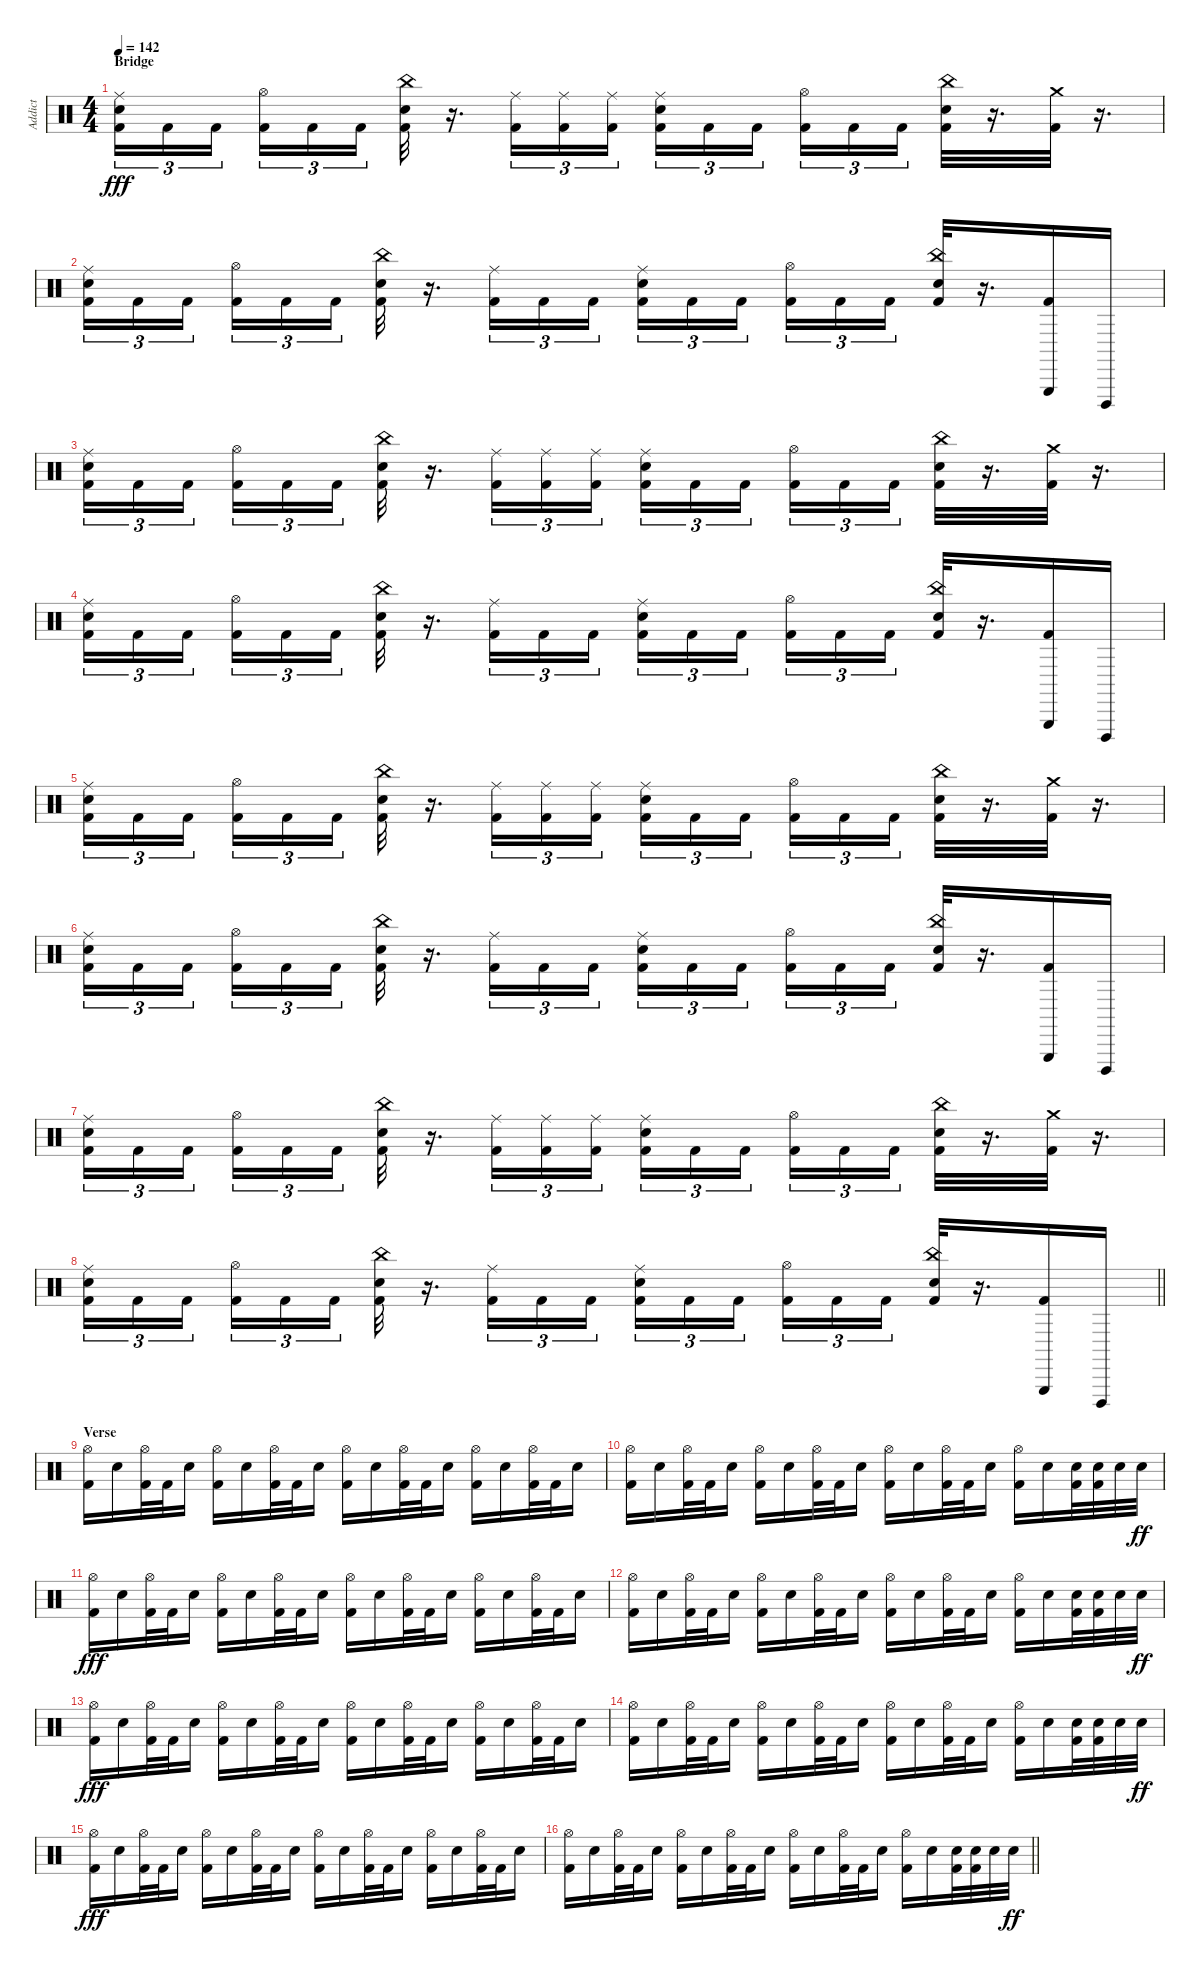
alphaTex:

\track ("Addict" "Addict") {instrument percussion}
\staff {score}
\articulation defaults
\ts (4 4)
\section ("" "Bridge")
\tempo 142
\clef neutral
\ks c
("Kick (hit) 2" "Snare (hit) 2" "Ride (middle)").16{tu (3 2) dy fff} "Kick (hit) 2".16{tu (3 2)} "Kick (hit) 2".16{tu (3 2) beam splitsecondary} ("Kick (hit) 2" "Hi-Hat (open)").16{tu (3 2)} "Kick (hit) 2".16{tu (3 2)} "Kick (hit) 2".16{tu (3 2)} ("Kick (hit) 2" "Snare (hit) 2" "China (hit)").32 r.16{d} ("Kick (hit) 2" "Ride (middle)").16{tu (3 2)} ("Kick (hit) 2" "Ride (middle)").16{tu (3 2)} ("Kick (hit) 2" "Ride (middle)").16{tu (3 2)} ("Kick (hit) 2" "Snare (hit) 2" "Ride (middle)").16{tu (3 2)} "Kick (hit) 2".16{tu (3 2)} "Kick (hit) 2".16{tu (3 2) beam splitsecondary} ("Kick (hit) 2" "Hi-Hat (open)").16{tu (3 2)} "Kick (hit) 2".16{tu (3 2)} "Kick (hit) 2".16{tu (3 2)} ("Kick (hit) 2" "Snare (hit) 2" "China (hit)").32 r.16{d} ("Kick (hit) 2" "Crash medium (hit)").32 r.16{d} |
("Kick (hit) 2" "Snare (hit) 2" "Ride (middle)").16{tu (3 2)} "Kick (hit) 2".16{tu (3 2)} "Kick (hit) 2".16{tu (3 2) beam splitsecondary} ("Kick (hit) 2" "Hi-Hat (open)").16{tu (3 2)} "Kick (hit) 2".16{tu (3 2)} "Kick (hit) 2".16{tu (3 2)} ("Kick (hit) 2" "Snare (hit) 2" "China (hit)").32 r.16{d} ("Kick (hit) 2" "Ride (middle)").16{tu (3 2)} "Kick (hit) 2".16{tu (3 2)} "Kick (hit) 2".16{tu (3 2)} ("Kick (hit) 2" "Snare (hit) 2" "Ride (middle)").16{tu (3 2)} "Kick (hit) 2".16{tu (3 2)} "Kick (hit) 2".16{tu (3 2) beam splitsecondary} ("Kick (hit) 2" "Hi-Hat (open)").16{tu (3 2)} "Kick (hit) 2".16{tu (3 2)} "Kick (hit) 2".16{tu (3 2)} ("Kick (hit) 2" "Snare (hit) 2" "China (hit)").32 r.16{d} ("Kick (hit) 2" "Triangle (hit)").16 "Cuica (open)".16 |
("Kick (hit) 2" "Snare (hit) 2" "Ride (middle)").16{tu (3 2)} "Kick (hit) 2".16{tu (3 2)} "Kick (hit) 2".16{tu (3 2) beam splitsecondary} ("Kick (hit) 2" "Hi-Hat (open)").16{tu (3 2)} "Kick (hit) 2".16{tu (3 2)} "Kick (hit) 2".16{tu (3 2)} ("Kick (hit) 2" "Snare (hit) 2" "China (hit)").32 r.16{d} ("Kick (hit) 2" "Ride (middle)").16{tu (3 2)} ("Kick (hit) 2" "Ride (middle)").16{tu (3 2)} ("Kick (hit) 2" "Ride (middle)").16{tu (3 2)} ("Kick (hit) 2" "Snare (hit) 2" "Ride (middle)").16{tu (3 2)} "Kick (hit) 2".16{tu (3 2)} "Kick (hit) 2".16{tu (3 2) beam splitsecondary} ("Kick (hit) 2" "Hi-Hat (open)").16{tu (3 2)} "Kick (hit) 2".16{tu (3 2)} "Kick (hit) 2".16{tu (3 2)} ("Kick (hit) 2" "Snare (hit) 2" "China (hit)").32 r.16{d} ("Kick (hit) 2" "Crash medium (hit)").32 r.16{d} |
("Kick (hit) 2" "Snare (hit) 2" "Ride (middle)").16{tu (3 2)} "Kick (hit) 2".16{tu (3 2)} "Kick (hit) 2".16{tu (3 2) beam splitsecondary} ("Kick (hit) 2" "Hi-Hat (open)").16{tu (3 2)} "Kick (hit) 2".16{tu (3 2)} "Kick (hit) 2".16{tu (3 2)} ("Kick (hit) 2" "Snare (hit) 2" "China (hit)").32 r.16{d} ("Kick (hit) 2" "Ride (middle)").16{tu (3 2)} "Kick (hit) 2".16{tu (3 2)} "Kick (hit) 2".16{tu (3 2)} ("Kick (hit) 2" "Snare (hit) 2" "Ride (middle)").16{tu (3 2)} "Kick (hit) 2".16{tu (3 2)} "Kick (hit) 2".16{tu (3 2) beam splitsecondary} ("Kick (hit) 2" "Hi-Hat (open)").16{tu (3 2)} "Kick (hit) 2".16{tu (3 2)} "Kick (hit) 2".16{tu (3 2)} ("Kick (hit) 2" "Snare (hit) 2" "China (hit)").32 r.16{d} ("Kick (hit) 2" "Triangle (hit)").16 "Cuica (open)".16 |
("Kick (hit) 2" "Snare (hit) 2" "Ride (middle)").16{tu (3 2)} "Kick (hit) 2".16{tu (3 2)} "Kick (hit) 2".16{tu (3 2) beam splitsecondary} ("Kick (hit) 2" "Hi-Hat (open)").16{tu (3 2)} "Kick (hit) 2".16{tu (3 2)} "Kick (hit) 2".16{tu (3 2)} ("Kick (hit) 2" "Snare (hit) 2" "China (hit)").32 r.16{d} ("Kick (hit) 2" "Ride (middle)").16{tu (3 2)} ("Kick (hit) 2" "Ride (middle)").16{tu (3 2)} ("Kick (hit) 2" "Ride (middle)").16{tu (3 2)} ("Kick (hit) 2" "Snare (hit) 2" "Ride (middle)").16{tu (3 2)} "Kick (hit) 2".16{tu (3 2)} "Kick (hit) 2".16{tu (3 2) beam splitsecondary} ("Kick (hit) 2" "Hi-Hat (open)").16{tu (3 2)} "Kick (hit) 2".16{tu (3 2)} "Kick (hit) 2".16{tu (3 2)} ("Kick (hit) 2" "Snare (hit) 2" "China (hit)").32 r.16{d} ("Kick (hit) 2" "Crash medium (hit)").32 r.16{d} |
("Kick (hit) 2" "Snare (hit) 2" "Ride (middle)").16{tu (3 2)} "Kick (hit) 2".16{tu (3 2)} "Kick (hit) 2".16{tu (3 2) beam splitsecondary} ("Kick (hit) 2" "Hi-Hat (open)").16{tu (3 2)} "Kick (hit) 2".16{tu (3 2)} "Kick (hit) 2".16{tu (3 2)} ("Kick (hit) 2" "Snare (hit) 2" "China (hit)").32 r.16{d} ("Kick (hit) 2" "Ride (middle)").16{tu (3 2)} "Kick (hit) 2".16{tu (3 2)} "Kick (hit) 2".16{tu (3 2)} ("Kick (hit) 2" "Snare (hit) 2" "Ride (middle)").16{tu (3 2)} "Kick (hit) 2".16{tu (3 2)} "Kick (hit) 2".16{tu (3 2) beam splitsecondary} ("Kick (hit) 2" "Hi-Hat (open)").16{tu (3 2)} "Kick (hit) 2".16{tu (3 2)} "Kick (hit) 2".16{tu (3 2)} ("Kick (hit) 2" "Snare (hit) 2" "China (hit)").32 r.16{d} ("Kick (hit) 2" "Triangle (hit)").16 "Cuica (open)".16 |
("Kick (hit) 2" "Snare (hit) 2" "Ride (middle)").16{tu (3 2)} "Kick (hit) 2".16{tu (3 2)} "Kick (hit) 2".16{tu (3 2) beam splitsecondary} ("Kick (hit) 2" "Hi-Hat (open)").16{tu (3 2)} "Kick (hit) 2".16{tu (3 2)} "Kick (hit) 2".16{tu (3 2)} ("Kick (hit) 2" "Snare (hit) 2" "China (hit)").32 r.16{d} ("Kick (hit) 2" "Ride (middle)").16{tu (3 2)} ("Kick (hit) 2" "Ride (middle)").16{tu (3 2)} ("Kick (hit) 2" "Ride (middle)").16{tu (3 2)} ("Kick (hit) 2" "Snare (hit) 2" "Ride (middle)").16{tu (3 2)} "Kick (hit) 2".16{tu (3 2)} "Kick (hit) 2".16{tu (3 2) beam splitsecondary} ("Kick (hit) 2" "Hi-Hat (open)").16{tu (3 2)} "Kick (hit) 2".16{tu (3 2)} "Kick (hit) 2".16{tu (3 2)} ("Kick (hit) 2" "Snare (hit) 2" "China (hit)").32 r.16{d} ("Kick (hit) 2" "Crash medium (hit)").32 r.16{d} |
\barLineRight lightlight
("Kick (hit) 2" "Snare (hit) 2" "Ride (middle)").16{tu (3 2)} "Kick (hit) 2".16{tu (3 2)} "Kick (hit) 2".16{tu (3 2) beam splitsecondary} ("Kick (hit) 2" "Hi-Hat (open)").16{tu (3 2)} "Kick (hit) 2".16{tu (3 2)} "Kick (hit) 2".16{tu (3 2)} ("Kick (hit) 2" "Snare (hit) 2" "China (hit)").32 r.16{d} ("Kick (hit) 2" "Ride (middle)").16{tu (3 2)} "Kick (hit) 2".16{tu (3 2)} "Kick (hit) 2".16{tu (3 2)} ("Kick (hit) 2" "Snare (hit) 2" "Ride (middle)").16{tu (3 2)} "Kick (hit) 2".16{tu (3 2)} "Kick (hit) 2".16{tu (3 2) beam splitsecondary} ("Kick (hit) 2" "Hi-Hat (open)").16{tu (3 2)} "Kick (hit) 2".16{tu (3 2)} "Kick (hit) 2".16{tu (3 2)} ("Kick (hit) 2" "Snare (hit) 2" "China (hit)").32 r.16{d} ("Kick (hit) 2" "Triangle (hit)").16 "Cuica (open)".16 |
\section ("" "Verse")
("Kick (hit) 2" "Hi-Hat (open)").16 "Snare (hit) 2".16 ("Kick (hit) 2" "Hi-Hat (open)").32 "Kick (hit) 2".32 "Snare (hit) 2".16 ("Kick (hit) 2" "Hi-Hat (open)").16 "Snare (hit) 2".16 ("Kick (hit) 2" "Hi-Hat (open)").32 "Kick (hit) 2".32 "Snare (hit) 2".16 ("Kick (hit) 2" "Hi-Hat (open)").16 "Snare (hit) 2".16 ("Kick (hit) 2" "Hi-Hat (open)").32 "Kick (hit) 2".32 "Snare (hit) 2".16 ("Kick (hit) 2" "Hi-Hat (open)").16 "Snare (hit) 2".16 ("Kick (hit) 2" "Hi-Hat (open)").32 "Kick (hit) 2".32 "Snare (hit) 2".16 |
("Kick (hit) 2" "Hi-Hat (open)").16 "Snare (hit) 2".16 ("Kick (hit) 2" "Hi-Hat (open)").32 "Kick (hit) 2".32 "Snare (hit) 2".16 ("Kick (hit) 2" "Hi-Hat (open)").16 "Snare (hit) 2".16 ("Kick (hit) 2" "Hi-Hat (open)").32 "Kick (hit) 2".32 "Snare (hit) 2".16 ("Kick (hit) 2" "Hi-Hat (open)").16 "Snare (hit) 2".16 ("Kick (hit) 2" "Hi-Hat (open)").32 "Kick (hit) 2".32 "Snare (hit) 2".16 ("Kick (hit) 2" "Hi-Hat (open)").16 "Snare (hit) 2".16 ("Kick (hit) 2" "Snare (hit) 2").32 ("Kick (hit) 2" "Snare (hit) 2").32 "Snare (hit) 2".32 "Snare (hit) 2".32{dy ff} |
("Kick (hit) 2" "Hi-Hat (open)").16{dy fff} "Snare (hit) 2".16 ("Kick (hit) 2" "Hi-Hat (open)").32 "Kick (hit) 2".32 "Snare (hit) 2".16 ("Kick (hit) 2" "Hi-Hat (open)").16 "Snare (hit) 2".16 ("Kick (hit) 2" "Hi-Hat (open)").32 "Kick (hit) 2".32 "Snare (hit) 2".16 ("Kick (hit) 2" "Hi-Hat (open)").16 "Snare (hit) 2".16 ("Kick (hit) 2" "Hi-Hat (open)").32 "Kick (hit) 2".32 "Snare (hit) 2".16 ("Kick (hit) 2" "Hi-Hat (open)").16 "Snare (hit) 2".16 ("Kick (hit) 2" "Hi-Hat (open)").32 "Kick (hit) 2".32 "Snare (hit) 2".16 |
("Kick (hit) 2" "Hi-Hat (open)").16 "Snare (hit) 2".16 ("Kick (hit) 2" "Hi-Hat (open)").32 "Kick (hit) 2".32 "Snare (hit) 2".16 ("Kick (hit) 2" "Hi-Hat (open)").16 "Snare (hit) 2".16 ("Kick (hit) 2" "Hi-Hat (open)").32 "Kick (hit) 2".32 "Snare (hit) 2".16 ("Kick (hit) 2" "Hi-Hat (open)").16 "Snare (hit) 2".16 ("Kick (hit) 2" "Hi-Hat (open)").32 "Kick (hit) 2".32 "Snare (hit) 2".16 ("Kick (hit) 2" "Hi-Hat (open)").16 "Snare (hit) 2".16 ("Kick (hit) 2" "Snare (hit) 2").32 ("Kick (hit) 2" "Snare (hit) 2").32 "Snare (hit) 2".32 "Snare (hit) 2".32{dy ff} |
("Kick (hit) 2" "Hi-Hat (open)").16{dy fff} "Snare (hit) 2".16 ("Kick (hit) 2" "Hi-Hat (open)").32 "Kick (hit) 2".32 "Snare (hit) 2".16 ("Kick (hit) 2" "Hi-Hat (open)").16 "Snare (hit) 2".16 ("Kick (hit) 2" "Hi-Hat (open)").32 "Kick (hit) 2".32 "Snare (hit) 2".16 ("Kick (hit) 2" "Hi-Hat (open)").16 "Snare (hit) 2".16 ("Kick (hit) 2" "Hi-Hat (open)").32 "Kick (hit) 2".32 "Snare (hit) 2".16 ("Kick (hit) 2" "Hi-Hat (open)").16 "Snare (hit) 2".16 ("Kick (hit) 2" "Hi-Hat (open)").32 "Kick (hit) 2".32 "Snare (hit) 2".16 |
("Kick (hit) 2" "Hi-Hat (open)").16 "Snare (hit) 2".16 ("Kick (hit) 2" "Hi-Hat (open)").32 "Kick (hit) 2".32 "Snare (hit) 2".16 ("Kick (hit) 2" "Hi-Hat (open)").16 "Snare (hit) 2".16 ("Kick (hit) 2" "Hi-Hat (open)").32 "Kick (hit) 2".32 "Snare (hit) 2".16 ("Kick (hit) 2" "Hi-Hat (open)").16 "Snare (hit) 2".16 ("Kick (hit) 2" "Hi-Hat (open)").32 "Kick (hit) 2".32 "Snare (hit) 2".16 ("Kick (hit) 2" "Hi-Hat (open)").16 "Snare (hit) 2".16 ("Kick (hit) 2" "Snare (hit) 2").32 ("Kick (hit) 2" "Snare (hit) 2").32 "Snare (hit) 2".32 "Snare (hit) 2".32{dy ff} |
("Kick (hit) 2" "Hi-Hat (open)").16{dy fff} "Snare (hit) 2".16 ("Kick (hit) 2" "Hi-Hat (open)").32 "Kick (hit) 2".32 "Snare (hit) 2".16 ("Kick (hit) 2" "Hi-Hat (open)").16 "Snare (hit) 2".16 ("Kick (hit) 2" "Hi-Hat (open)").32 "Kick (hit) 2".32 "Snare (hit) 2".16 ("Kick (hit) 2" "Hi-Hat (open)").16 "Snare (hit) 2".16 ("Kick (hit) 2" "Hi-Hat (open)").32 "Kick (hit) 2".32 "Snare (hit) 2".16 ("Kick (hit) 2" "Hi-Hat (open)").16 "Snare (hit) 2".16 ("Kick (hit) 2" "Hi-Hat (open)").32 "Kick (hit) 2".32 "Snare (hit) 2".16 |
\barLineRight lightlight
("Kick (hit) 2" "Hi-Hat (open)").16 "Snare (hit) 2".16 ("Kick (hit) 2" "Hi-Hat (open)").32 "Kick (hit) 2".32 "Snare (hit) 2".16 ("Kick (hit) 2" "Hi-Hat (open)").16 "Snare (hit) 2".16 ("Kick (hit) 2" "Hi-Hat (open)").32 "Kick (hit) 2".32 "Snare (hit) 2".16 ("Kick (hit) 2" "Hi-Hat (open)").16 "Snare (hit) 2".16 ("Kick (hit) 2" "Hi-Hat (open)").32 "Kick (hit) 2".32 "Snare (hit) 2".16 ("Kick (hit) 2" "Hi-Hat (open)").16 "Snare (hit) 2".16 ("Kick (hit) 2" "Snare (hit) 2").32 ("Kick (hit) 2" "Snare (hit) 2").32 "Snare (hit) 2".32 "Snare (hit) 2".32{dy ff}
